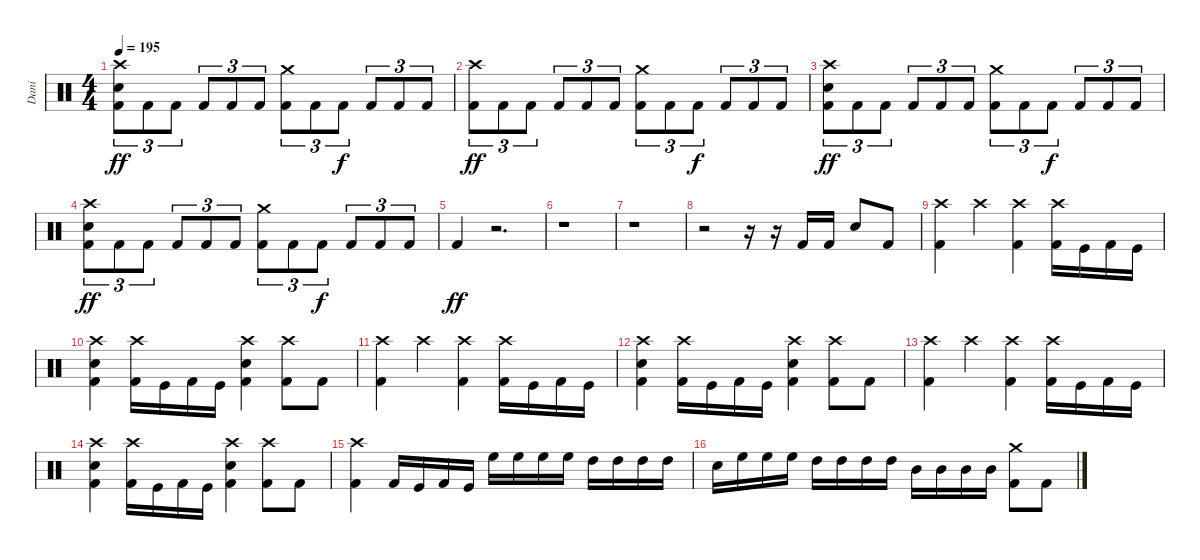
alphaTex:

\track ("Dani" "Dani") {instrument percussion}
\staff {score}
\articulation defaults
\ts (4 4)
\tempo 195
\clef neutral
\ks c
("Crash high (hit)" "Electric Snare (hit)" "Kick (hit) 2").8{tu (3 2) dy ff} "Kick (hit) 2".8{tu (3 2)} "Kick (hit) 2".8{tu (3 2)} "Kick (hit) 2".8{tu (3 2)} "Kick (hit) 2".8{tu (3 2)} "Kick (hit) 2".8{tu (3 2)} ("Crash medium (hit)" "Kick (hit) 2").8{tu (3 2)} "Kick (hit) 2".8{tu (3 2)} "Kick (hit) 2".8{tu (3 2) dy f} "Kick (hit) 2".8{tu (3 2)} "Kick (hit) 2".8{tu (3 2)} "Kick (hit) 2".8{tu (3 2)} |
("Crash high (hit)" "Kick (hit) 2").8{tu (3 2) dy ff} "Kick (hit) 2".8{tu (3 2)} "Kick (hit) 2".8{tu (3 2)} "Kick (hit) 2".8{tu (3 2)} "Kick (hit) 2".8{tu (3 2)} "Kick (hit) 2".8{tu (3 2)} ("Crash medium (hit)" "Kick (hit) 2").8{tu (3 2)} "Kick (hit) 2".8{tu (3 2)} "Kick (hit) 2".8{tu (3 2) dy f} "Kick (hit) 2".8{tu (3 2)} "Kick (hit) 2".8{tu (3 2)} "Kick (hit) 2".8{tu (3 2)} |
("Crash high (hit)" "Electric Snare (hit)" "Kick (hit) 2").8{tu (3 2) dy ff} "Kick (hit) 2".8{tu (3 2)} "Kick (hit) 2".8{tu (3 2)} "Kick (hit) 2".8{tu (3 2)} "Kick (hit) 2".8{tu (3 2)} "Kick (hit) 2".8{tu (3 2)} ("Crash medium (hit)" "Kick (hit) 2").8{tu (3 2)} "Kick (hit) 2".8{tu (3 2)} "Kick (hit) 2".8{tu (3 2) dy f} "Kick (hit) 2".8{tu (3 2)} "Kick (hit) 2".8{tu (3 2)} "Kick (hit) 2".8{tu (3 2)} |
("Crash high (hit)" "Electric Snare (hit)" "Kick (hit) 2").8{tu (3 2) dy ff} "Kick (hit) 2".8{tu (3 2)} "Kick (hit) 2".8{tu (3 2)} "Kick (hit) 2".8{tu (3 2)} "Kick (hit) 2".8{tu (3 2)} "Kick (hit) 2".8{tu (3 2)} ("Crash medium (hit)" "Kick (hit) 2").8{tu (3 2)} "Kick (hit) 2".8{tu (3 2)} "Kick (hit) 2".8{tu (3 2) dy f} "Kick (hit) 2".8{tu (3 2)} "Kick (hit) 2".8{tu (3 2)} "Kick (hit) 2".8{tu (3 2)} |
"Kick (hit) 2".4{dy ff} r.2{d} |
r.1 |
r.1 |
r.2 r.16 r.16 "Kick (hit) 2".16 "Kick (hit) 2".16 "Electric Snare (hit)".8 "Kick (hit) 2".8 |
("Crash high (hit)" "Kick (hit) 2").4 "Crash high (hit)".4 ("Crash high (hit)" "Kick (hit) 2").4 ("Crash high (hit)" "Kick (hit) 2").16 "Kick (hit)".16 "Kick (hit) 2".16 "Kick (hit)".16 |
("Crash high (hit)" "Electric Snare (hit)" "Kick (hit) 2").4 ("Crash high (hit)" "Kick (hit) 2").16 "Kick (hit)".16 "Kick (hit) 2".16 "Kick (hit)".16 ("Crash high (hit)" "Electric Snare (hit)" "Kick (hit) 2").4 ("Crash high (hit)" "Kick (hit) 2").8 "Kick (hit) 2".8 |
("Crash high (hit)" "Kick (hit) 2").4 "Crash high (hit)".4 ("Crash high (hit)" "Kick (hit) 2").4 ("Crash high (hit)" "Kick (hit) 2").16 "Kick (hit)".16 "Kick (hit) 2".16 "Kick (hit)".16 |
("Crash high (hit)" "Electric Snare (hit)" "Kick (hit) 2").4 ("Crash high (hit)" "Kick (hit) 2").16 "Kick (hit)".16 "Kick (hit) 2".16 "Kick (hit)".16 ("Crash high (hit)" "Electric Snare (hit)" "Kick (hit) 2").4 ("Crash high (hit)" "Kick (hit) 2").8 "Kick (hit) 2".8 |
("Crash high (hit)" "Kick (hit) 2").4 "Crash high (hit)".4 ("Crash high (hit)" "Kick (hit) 2").4 ("Crash high (hit)" "Kick (hit) 2").16 "Kick (hit)".16 "Kick (hit) 2".16 "Kick (hit)".16 |
("Crash high (hit)" "Electric Snare (hit)" "Kick (hit) 2").4 ("Crash high (hit)" "Kick (hit) 2").16 "Kick (hit)".16 "Kick (hit) 2".16 "Kick (hit)".16 ("Crash high (hit)" "Electric Snare (hit)" "Kick (hit) 2").4 ("Crash high (hit)" "Kick (hit) 2").8 "Kick (hit) 2".8 |
("Crash high (hit)" "Kick (hit) 2").4 "Kick (hit) 2".16 "Kick (hit)".16 "Kick (hit) 2".16 "Kick (hit)".16 "High Floor Tom (hit)".16 "High Floor Tom (hit)".16 "High Floor Tom (hit)".16 "High Floor Tom (hit)".16 "High Tom (hit)".16 "High Tom (hit)".16 "High Tom (hit)".16 "High Tom (hit)".16 |
"Electric Snare (hit)".16 "High Floor Tom (hit)".16 "High Floor Tom (hit)".16 "High Floor Tom (hit)".16 "High Tom (hit)".16 "High Tom (hit)".16 "High Tom (hit)".16 "High Tom (hit)".16 "Mid Tom (hit)".16 "Mid Tom (hit)".16 "Mid Tom (hit)".16 "Mid Tom (hit)".16 ("Crash medium (hit)" "Kick (hit) 2").8 "Kick (hit) 2".8
